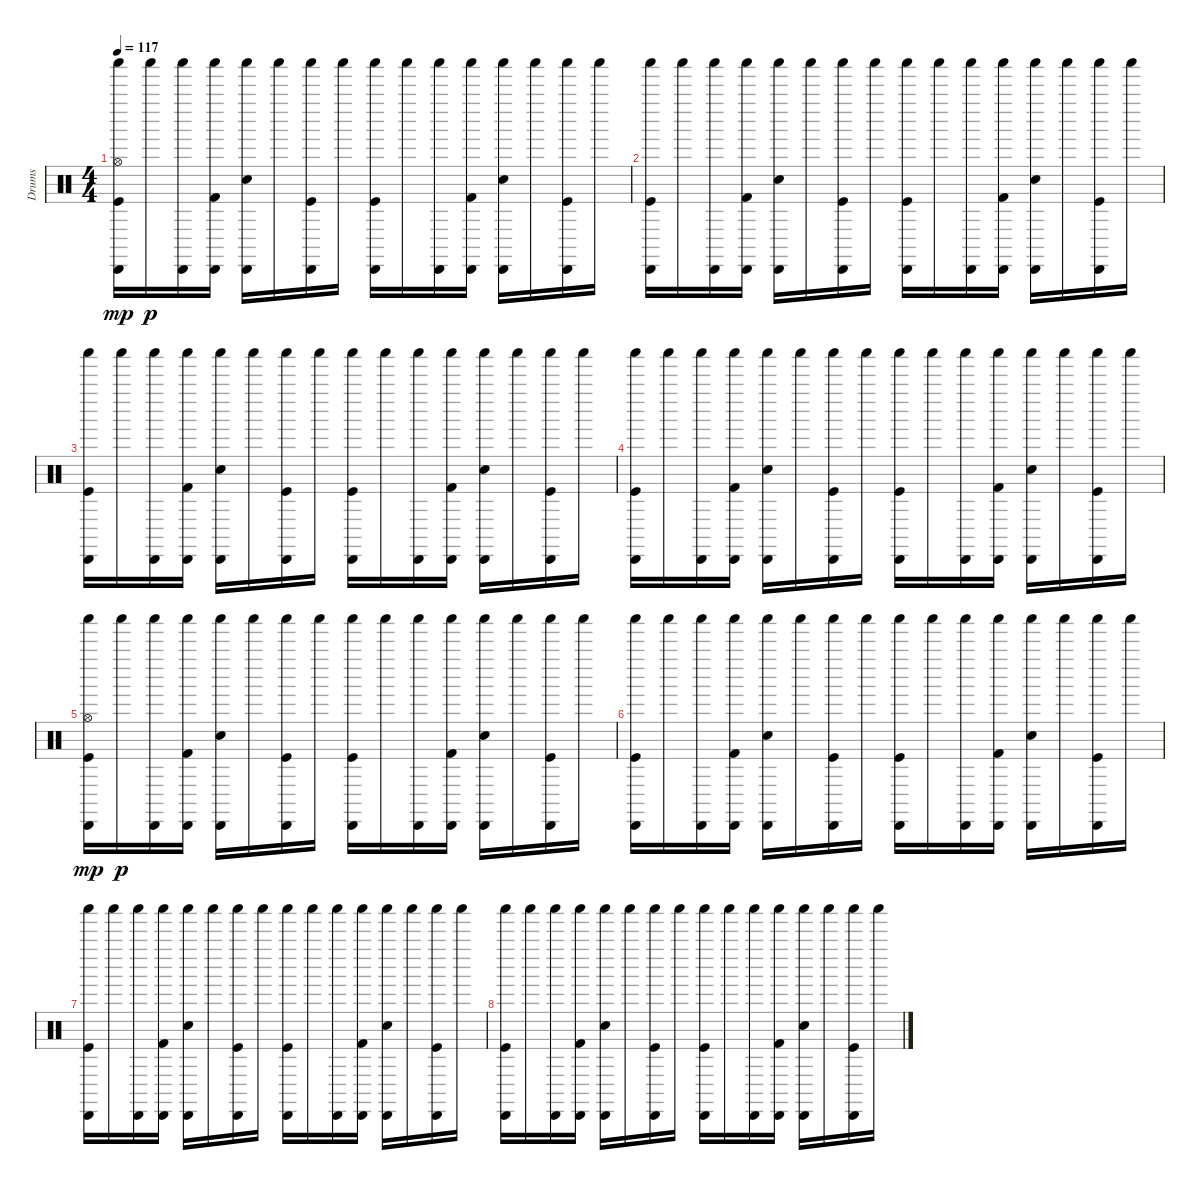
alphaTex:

\track ("Drums" "Drums") {instrument percussion}
\staff {score}
\articulation defaults
\ts (4 4)
\tempo 117
\clef neutral
\ks c
("Kick (hit)" "Shaker (hit)" "Cabasa (hit)" "Hi-Hat (open)").16{dy mp} "Shaker (hit)".16{dy p} ("Shaker (hit)" "Cabasa (hit)").16 ("Kick (hit) 2" "Shaker (hit)" "Cabasa (hit)").16 ("Snare (hit) 2" "Shaker (hit)" "Cabasa (hit)").16 "Shaker (hit)".16 ("Kick (hit)" "Shaker (hit)" "Cabasa (hit)").16 "Shaker (hit)".16 ("Kick (hit)" "Shaker (hit)" "Cabasa (hit)").16 "Shaker (hit)".16 ("Shaker (hit)" "Cabasa (hit)").16 ("Kick (hit) 2" "Shaker (hit)" "Cabasa (hit)").16 ("Snare (hit) 2" "Shaker (hit)" "Cabasa (hit)").16 "Shaker (hit)".16 ("Kick (hit)" "Shaker (hit)" "Cabasa (hit)").16 "Shaker (hit)".16 |
("Kick (hit)" "Shaker (hit)" "Cabasa (hit)").16 "Shaker (hit)".16 ("Shaker (hit)" "Cabasa (hit)").16 ("Kick (hit) 2" "Shaker (hit)" "Cabasa (hit)").16 ("Snare (hit) 2" "Shaker (hit)" "Cabasa (hit)").16 "Shaker (hit)".16 ("Kick (hit)" "Shaker (hit)" "Cabasa (hit)").16 "Shaker (hit)".16 ("Kick (hit)" "Shaker (hit)" "Cabasa (hit)").16 "Shaker (hit)".16 ("Shaker (hit)" "Cabasa (hit)").16 ("Kick (hit) 2" "Shaker (hit)" "Cabasa (hit)").16 ("Snare (hit) 2" "Shaker (hit)" "Cabasa (hit)").16 "Shaker (hit)".16 ("Kick (hit)" "Shaker (hit)" "Cabasa (hit)").16 "Shaker (hit)".16 |
("Kick (hit)" "Shaker (hit)" "Cabasa (hit)").16 "Shaker (hit)".16 ("Shaker (hit)" "Cabasa (hit)").16 ("Kick (hit) 2" "Shaker (hit)" "Cabasa (hit)").16 ("Snare (hit) 2" "Shaker (hit)" "Cabasa (hit)").16 "Shaker (hit)".16 ("Kick (hit)" "Shaker (hit)" "Cabasa (hit)").16 "Shaker (hit)".16 ("Kick (hit)" "Shaker (hit)" "Cabasa (hit)").16 "Shaker (hit)".16 ("Shaker (hit)" "Cabasa (hit)").16 ("Kick (hit) 2" "Shaker (hit)" "Cabasa (hit)").16 ("Snare (hit) 2" "Shaker (hit)" "Cabasa (hit)").16 "Shaker (hit)".16 ("Kick (hit)" "Shaker (hit)" "Cabasa (hit)").16 "Shaker (hit)".16 |
("Kick (hit)" "Shaker (hit)" "Cabasa (hit)").16 "Shaker (hit)".16 ("Shaker (hit)" "Cabasa (hit)").16 ("Kick (hit) 2" "Shaker (hit)" "Cabasa (hit)").16 ("Snare (hit) 2" "Shaker (hit)" "Cabasa (hit)").16 "Shaker (hit)".16 ("Kick (hit)" "Shaker (hit)" "Cabasa (hit)").16 "Shaker (hit)".16 ("Kick (hit)" "Shaker (hit)" "Cabasa (hit)").16 "Shaker (hit)".16 ("Shaker (hit)" "Cabasa (hit)").16 ("Kick (hit) 2" "Shaker (hit)" "Cabasa (hit)").16 ("Snare (hit) 2" "Shaker (hit)" "Cabasa (hit)").16 "Shaker (hit)".16 ("Kick (hit)" "Shaker (hit)" "Cabasa (hit)").16 "Shaker (hit)".16 |
("Kick (hit)" "Shaker (hit)" "Cabasa (hit)" "Hi-Hat (open)").16{dy mp} "Shaker (hit)".16{dy p} ("Shaker (hit)" "Cabasa (hit)").16 ("Kick (hit) 2" "Shaker (hit)" "Cabasa (hit)").16 ("Snare (hit) 2" "Shaker (hit)" "Cabasa (hit)").16 "Shaker (hit)".16 ("Kick (hit)" "Shaker (hit)" "Cabasa (hit)").16 "Shaker (hit)".16 ("Kick (hit)" "Shaker (hit)" "Cabasa (hit)").16 "Shaker (hit)".16 ("Shaker (hit)" "Cabasa (hit)").16 ("Kick (hit) 2" "Shaker (hit)" "Cabasa (hit)").16 ("Snare (hit) 2" "Shaker (hit)" "Cabasa (hit)").16 "Shaker (hit)".16 ("Kick (hit)" "Shaker (hit)" "Cabasa (hit)").16 "Shaker (hit)".16 |
("Kick (hit)" "Shaker (hit)" "Cabasa (hit)").16 "Shaker (hit)".16 ("Shaker (hit)" "Cabasa (hit)").16 ("Kick (hit) 2" "Shaker (hit)" "Cabasa (hit)").16 ("Snare (hit) 2" "Shaker (hit)" "Cabasa (hit)").16 "Shaker (hit)".16 ("Kick (hit)" "Shaker (hit)" "Cabasa (hit)").16 "Shaker (hit)".16 ("Kick (hit)" "Shaker (hit)" "Cabasa (hit)").16 "Shaker (hit)".16 ("Shaker (hit)" "Cabasa (hit)").16 ("Kick (hit) 2" "Shaker (hit)" "Cabasa (hit)").16 ("Snare (hit) 2" "Shaker (hit)" "Cabasa (hit)").16 "Shaker (hit)".16 ("Kick (hit)" "Shaker (hit)" "Cabasa (hit)").16 "Shaker (hit)".16 |
("Kick (hit)" "Shaker (hit)" "Cabasa (hit)").16 "Shaker (hit)".16 ("Shaker (hit)" "Cabasa (hit)").16 ("Kick (hit) 2" "Shaker (hit)" "Cabasa (hit)").16 ("Snare (hit) 2" "Shaker (hit)" "Cabasa (hit)").16 "Shaker (hit)".16 ("Kick (hit)" "Shaker (hit)" "Cabasa (hit)").16 "Shaker (hit)".16 ("Kick (hit)" "Shaker (hit)" "Cabasa (hit)").16 "Shaker (hit)".16 ("Shaker (hit)" "Cabasa (hit)").16 ("Kick (hit) 2" "Shaker (hit)" "Cabasa (hit)").16 ("Snare (hit) 2" "Shaker (hit)" "Cabasa (hit)").16 "Shaker (hit)".16 ("Kick (hit)" "Shaker (hit)" "Cabasa (hit)").16 "Shaker (hit)".16 |
("Kick (hit)" "Shaker (hit)" "Cabasa (hit)").16 "Shaker (hit)".16 ("Shaker (hit)" "Cabasa (hit)").16 ("Kick (hit) 2" "Shaker (hit)" "Cabasa (hit)").16 ("Snare (hit) 2" "Shaker (hit)" "Cabasa (hit)").16 "Shaker (hit)".16 ("Kick (hit)" "Shaker (hit)" "Cabasa (hit)").16 "Shaker (hit)".16 ("Kick (hit)" "Shaker (hit)" "Cabasa (hit)").16 "Shaker (hit)".16 ("Shaker (hit)" "Cabasa (hit)").16 ("Kick (hit) 2" "Shaker (hit)" "Cabasa (hit)").16 ("Snare (hit) 2" "Shaker (hit)" "Cabasa (hit)").16 "Shaker (hit)".16 ("Kick (hit)" "Shaker (hit)" "Cabasa (hit)").16 "Shaker (hit)".16
